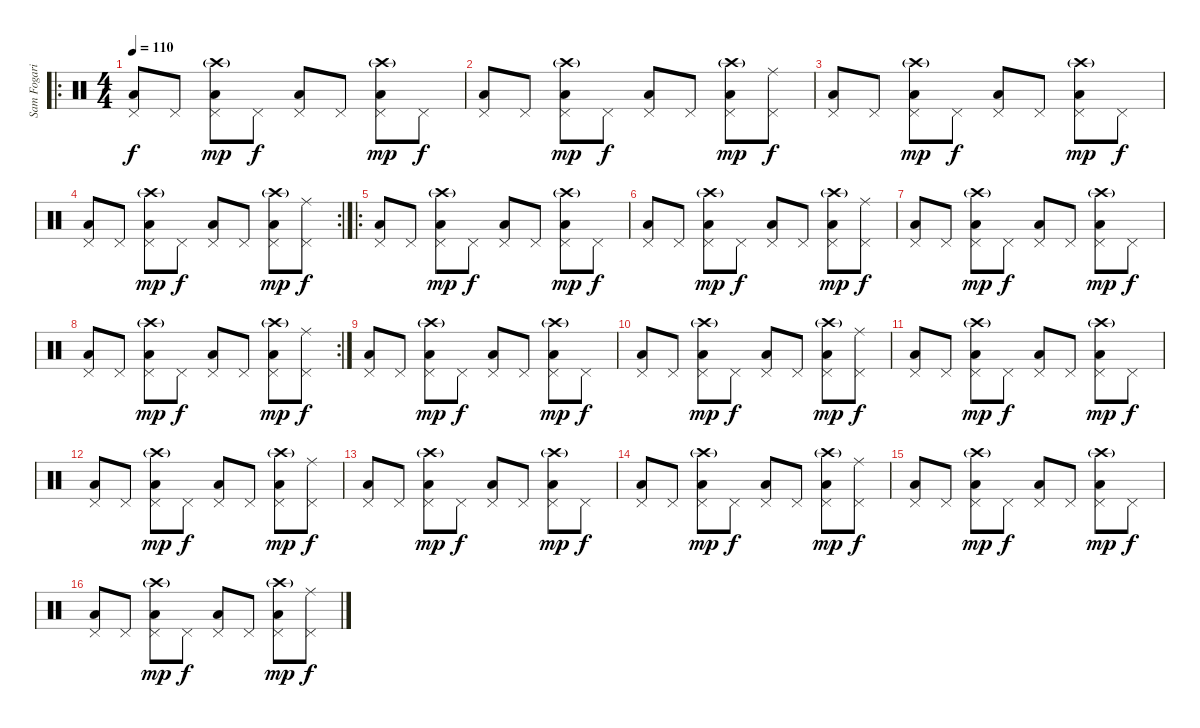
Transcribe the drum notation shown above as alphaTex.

\track ("Sam Fogarino (Drums)" "Sam Fogari") {instrument percussion}
\staff {score}
\articulation defaults
\ro
\ts (4 4)
\tempo 110
\clef neutral
\ks c
("Low Tom (hit)" "Pedal Hi-Hat (hit)").8{dy f} "Pedal Hi-Hat (hit)".8 ("Crash high (hit)"{g} "Low Tom (hit)" "Pedal Hi-Hat (hit)").8{dy mp} "Pedal Hi-Hat (hit)".8{dy f} ("Low Tom (hit)" "Pedal Hi-Hat (hit)").8 "Pedal Hi-Hat (hit)".8 ("Crash high (hit)"{g} "Low Tom (hit)" "Pedal Hi-Hat (hit)").8{dy mp} "Pedal Hi-Hat (hit)".8{dy f} |
("Low Tom (hit)" "Pedal Hi-Hat (hit)").8 "Pedal Hi-Hat (hit)".8 ("Crash high (hit)"{g} "Low Tom (hit)" "Pedal Hi-Hat (hit)").8{dy mp} "Pedal Hi-Hat (hit)".8{dy f} ("Low Tom (hit)" "Pedal Hi-Hat (hit)").8 "Pedal Hi-Hat (hit)".8 ("Crash high (hit)"{g} "Low Tom (hit)" "Pedal Hi-Hat (hit)").8{dy mp} ("Ride (middle)" "Pedal Hi-Hat (hit)").8{dy f} |
("Low Tom (hit)" "Pedal Hi-Hat (hit)").8 "Pedal Hi-Hat (hit)".8 ("Crash high (hit)"{g} "Low Tom (hit)" "Pedal Hi-Hat (hit)").8{dy mp} "Pedal Hi-Hat (hit)".8{dy f} ("Low Tom (hit)" "Pedal Hi-Hat (hit)").8 "Pedal Hi-Hat (hit)".8 ("Crash high (hit)"{g} "Low Tom (hit)" "Pedal Hi-Hat (hit)").8{dy mp} "Pedal Hi-Hat (hit)".8{dy f} |
\rc 2
("Low Tom (hit)" "Pedal Hi-Hat (hit)").8 "Pedal Hi-Hat (hit)".8 ("Crash high (hit)"{g} "Low Tom (hit)" "Pedal Hi-Hat (hit)").8{dy mp} "Pedal Hi-Hat (hit)".8{dy f} ("Low Tom (hit)" "Pedal Hi-Hat (hit)").8 "Pedal Hi-Hat (hit)".8 ("Crash high (hit)"{g} "Low Tom (hit)" "Pedal Hi-Hat (hit)").8{dy mp} ("Ride (middle)" "Pedal Hi-Hat (hit)").8{dy f} |
\ro
("Low Tom (hit)" "Pedal Hi-Hat (hit)").8 "Pedal Hi-Hat (hit)".8 ("Crash high (hit)"{g} "Low Tom (hit)" "Pedal Hi-Hat (hit)").8{dy mp} "Pedal Hi-Hat (hit)".8{dy f} ("Low Tom (hit)" "Pedal Hi-Hat (hit)").8 "Pedal Hi-Hat (hit)".8 ("Crash high (hit)"{g} "Low Tom (hit)" "Pedal Hi-Hat (hit)").8{dy mp} "Pedal Hi-Hat (hit)".8{dy f} |
("Low Tom (hit)" "Pedal Hi-Hat (hit)").8 "Pedal Hi-Hat (hit)".8 ("Crash high (hit)"{g} "Low Tom (hit)" "Pedal Hi-Hat (hit)").8{dy mp} "Pedal Hi-Hat (hit)".8{dy f} ("Low Tom (hit)" "Pedal Hi-Hat (hit)").8 "Pedal Hi-Hat (hit)".8 ("Crash high (hit)"{g} "Low Tom (hit)" "Pedal Hi-Hat (hit)").8{dy mp} ("Ride (middle)" "Pedal Hi-Hat (hit)").8{dy f} |
("Low Tom (hit)" "Pedal Hi-Hat (hit)").8 "Pedal Hi-Hat (hit)".8 ("Crash high (hit)"{g} "Low Tom (hit)" "Pedal Hi-Hat (hit)").8{dy mp} "Pedal Hi-Hat (hit)".8{dy f} ("Low Tom (hit)" "Pedal Hi-Hat (hit)").8 "Pedal Hi-Hat (hit)".8 ("Crash high (hit)"{g} "Low Tom (hit)" "Pedal Hi-Hat (hit)").8{dy mp} "Pedal Hi-Hat (hit)".8{dy f} |
\rc 2
("Low Tom (hit)" "Pedal Hi-Hat (hit)").8 "Pedal Hi-Hat (hit)".8 ("Crash high (hit)"{g} "Low Tom (hit)" "Pedal Hi-Hat (hit)").8{dy mp} "Pedal Hi-Hat (hit)".8{dy f} ("Low Tom (hit)" "Pedal Hi-Hat (hit)").8 "Pedal Hi-Hat (hit)".8 ("Crash high (hit)"{g} "Low Tom (hit)" "Pedal Hi-Hat (hit)").8{dy mp} ("Ride (middle)" "Pedal Hi-Hat (hit)").8{dy f} |
("Low Tom (hit)" "Pedal Hi-Hat (hit)").8 "Pedal Hi-Hat (hit)".8 ("Crash high (hit)"{g} "Low Tom (hit)" "Pedal Hi-Hat (hit)").8{dy mp} "Pedal Hi-Hat (hit)".8{dy f} ("Low Tom (hit)" "Pedal Hi-Hat (hit)").8 "Pedal Hi-Hat (hit)".8 ("Crash high (hit)"{g} "Low Tom (hit)" "Pedal Hi-Hat (hit)").8{dy mp} "Pedal Hi-Hat (hit)".8{dy f} |
("Low Tom (hit)" "Pedal Hi-Hat (hit)").8 "Pedal Hi-Hat (hit)".8 ("Crash high (hit)"{g} "Low Tom (hit)" "Pedal Hi-Hat (hit)").8{dy mp} "Pedal Hi-Hat (hit)".8{dy f} ("Low Tom (hit)" "Pedal Hi-Hat (hit)").8 "Pedal Hi-Hat (hit)".8 ("Crash high (hit)"{g} "Low Tom (hit)" "Pedal Hi-Hat (hit)").8{dy mp} ("Ride (middle)" "Pedal Hi-Hat (hit)").8{dy f} |
("Low Tom (hit)" "Pedal Hi-Hat (hit)").8 "Pedal Hi-Hat (hit)".8 ("Crash high (hit)"{g} "Low Tom (hit)" "Pedal Hi-Hat (hit)").8{dy mp} "Pedal Hi-Hat (hit)".8{dy f} ("Low Tom (hit)" "Pedal Hi-Hat (hit)").8 "Pedal Hi-Hat (hit)".8 ("Crash high (hit)"{g} "Low Tom (hit)" "Pedal Hi-Hat (hit)").8{dy mp} "Pedal Hi-Hat (hit)".8{dy f} |
("Low Tom (hit)" "Pedal Hi-Hat (hit)").8 "Pedal Hi-Hat (hit)".8 ("Crash high (hit)"{g} "Low Tom (hit)" "Pedal Hi-Hat (hit)").8{dy mp} "Pedal Hi-Hat (hit)".8{dy f} ("Low Tom (hit)" "Pedal Hi-Hat (hit)").8 "Pedal Hi-Hat (hit)".8 ("Crash high (hit)"{g} "Low Tom (hit)" "Pedal Hi-Hat (hit)").8{dy mp} ("Ride (middle)" "Pedal Hi-Hat (hit)").8{dy f} |
("Low Tom (hit)" "Pedal Hi-Hat (hit)").8 "Pedal Hi-Hat (hit)".8 ("Crash high (hit)"{g} "Low Tom (hit)" "Pedal Hi-Hat (hit)").8{dy mp} "Pedal Hi-Hat (hit)".8{dy f} ("Low Tom (hit)" "Pedal Hi-Hat (hit)").8 "Pedal Hi-Hat (hit)".8 ("Crash high (hit)"{g} "Low Tom (hit)" "Pedal Hi-Hat (hit)").8{dy mp} "Pedal Hi-Hat (hit)".8{dy f} |
("Low Tom (hit)" "Pedal Hi-Hat (hit)").8 "Pedal Hi-Hat (hit)".8 ("Crash high (hit)"{g} "Low Tom (hit)" "Pedal Hi-Hat (hit)").8{dy mp} "Pedal Hi-Hat (hit)".8{dy f} ("Low Tom (hit)" "Pedal Hi-Hat (hit)").8 "Pedal Hi-Hat (hit)".8 ("Crash high (hit)"{g} "Low Tom (hit)" "Pedal Hi-Hat (hit)").8{dy mp} ("Ride (middle)" "Pedal Hi-Hat (hit)").8{dy f} |
("Low Tom (hit)" "Pedal Hi-Hat (hit)").8 "Pedal Hi-Hat (hit)".8 ("Crash high (hit)"{g} "Low Tom (hit)" "Pedal Hi-Hat (hit)").8{dy mp} "Pedal Hi-Hat (hit)".8{dy f} ("Low Tom (hit)" "Pedal Hi-Hat (hit)").8 "Pedal Hi-Hat (hit)".8 ("Crash high (hit)"{g} "Low Tom (hit)" "Pedal Hi-Hat (hit)").8{dy mp} "Pedal Hi-Hat (hit)".8{dy f} |
("Low Tom (hit)" "Pedal Hi-Hat (hit)").8 "Pedal Hi-Hat (hit)".8 ("Crash high (hit)"{g} "Low Tom (hit)" "Pedal Hi-Hat (hit)").8{dy mp} "Pedal Hi-Hat (hit)".8{dy f} ("Low Tom (hit)" "Pedal Hi-Hat (hit)").8 "Pedal Hi-Hat (hit)".8 ("Crash high (hit)"{g} "Low Tom (hit)" "Pedal Hi-Hat (hit)").8{dy mp} ("Ride (middle)" "Pedal Hi-Hat (hit)").8{dy f}
